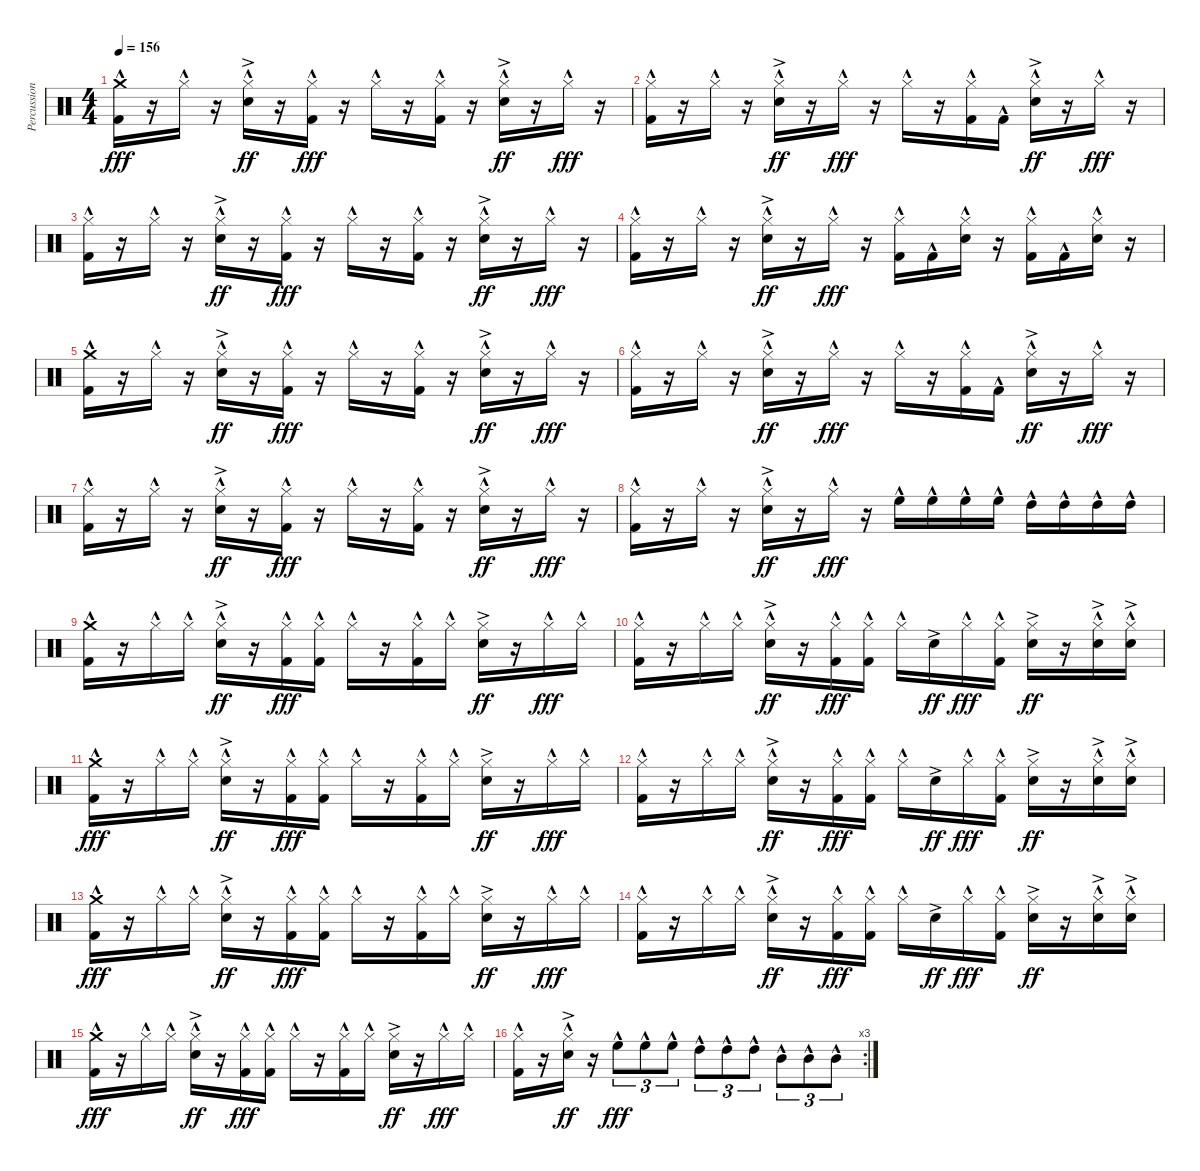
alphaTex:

\track ("Percussion" "Percussion") {instrument percussion bank 255}
\staff {score}
\articulation defaults
\ts (4 4)
\tempo 156
\clef neutral
\ks c
("Crash medium (hit)"{hac} "Kick (hit) 2"{hac}).16{dy fff} r.16 "Hi-Hat (closed)"{hac}.16 r.16 ("Hi-Hat (closed)"{hac} "Snare (hit) 2"{ac}).16{dy ff} r.16 ("Hi-Hat (closed)"{hac} "Kick (hit) 2"{hac}).16{dy fff} r.16 "Hi-Hat (closed)"{hac}.16 r.16 ("Hi-Hat (closed)"{hac} "Kick (hit) 2"{hac}).16 r.16 ("Hi-Hat (closed)"{hac} "Snare (hit) 2"{ac}).16{dy ff} r.16 "Hi-Hat (closed)"{hac}.16{dy fff} r.16 |
("Hi-Hat (closed)"{hac} "Kick (hit) 2"{hac}).16 r.16 "Hi-Hat (closed)"{hac}.16 r.16 ("Hi-Hat (closed)"{hac} "Snare (hit) 2"{ac}).16{dy ff} r.16 "Hi-Hat (closed)"{hac}.16{dy fff} r.16 "Hi-Hat (closed)"{hac}.16 r.16 ("Hi-Hat (closed)"{hac} "Kick (hit) 2"{hac}).16 "Kick (hit) 2"{hac}.16 ("Hi-Hat (closed)"{hac} "Snare (hit) 2"{ac}).16{dy ff} r.16 "Hi-Hat (closed)"{hac}.16{dy fff} r.16 |
("Hi-Hat (closed)"{hac} "Kick (hit) 2"{hac}).16 r.16 "Hi-Hat (closed)"{hac}.16 r.16 ("Hi-Hat (closed)"{hac} "Snare (hit) 2"{ac}).16{dy ff} r.16 ("Hi-Hat (closed)"{hac} "Kick (hit) 2"{hac}).16{dy fff} r.16 "Hi-Hat (closed)"{hac}.16 r.16 ("Hi-Hat (closed)"{hac} "Kick (hit) 2"{hac}).16 r.16 ("Hi-Hat (closed)"{hac} "Snare (hit) 2"{ac}).16{dy ff} r.16 "Hi-Hat (closed)"{hac}.16{dy fff} r.16 |
("Hi-Hat (closed)"{hac} "Kick (hit) 2"{hac}).16 r.16 "Hi-Hat (closed)"{hac}.16 r.16 ("Hi-Hat (closed)"{hac} "Snare (hit) 2"{ac}).16{dy ff} r.16 "Hi-Hat (closed)"{hac}.16{dy fff} r.16 ("Hi-Hat (closed)"{hac} "Kick (hit) 2"{hac}).16 "Kick (hit) 2"{hac}.16 ("Hi-Hat (closed)"{hac} "Snare (hit) 2").16 r.16 ("Hi-Hat (closed)"{hac} "Kick (hit) 2"{hac}).16 "Kick (hit) 2"{hac}.16 ("Hi-Hat (closed)"{hac} "Snare (hit) 2").16 r.16 |
("Crash medium (hit)"{hac} "Kick (hit) 2"{hac}).16 r.16 "Hi-Hat (closed)"{hac}.16 r.16 ("Hi-Hat (closed)"{hac} "Snare (hit) 2"{ac}).16{dy ff} r.16 ("Hi-Hat (closed)"{hac} "Kick (hit) 2"{hac}).16{dy fff} r.16 "Hi-Hat (closed)"{hac}.16 r.16 ("Hi-Hat (closed)"{hac} "Kick (hit) 2"{hac}).16 r.16 ("Hi-Hat (closed)"{hac} "Snare (hit) 2"{ac}).16{dy ff} r.16 "Hi-Hat (closed)"{hac}.16{dy fff} r.16 |
("Hi-Hat (closed)"{hac} "Kick (hit) 2"{hac}).16 r.16 "Hi-Hat (closed)"{hac}.16 r.16 ("Hi-Hat (closed)"{hac} "Snare (hit) 2"{ac}).16{dy ff} r.16 "Hi-Hat (closed)"{hac}.16{dy fff} r.16 "Hi-Hat (closed)"{hac}.16 r.16 ("Hi-Hat (closed)"{hac} "Kick (hit) 2"{hac}).16 "Kick (hit) 2"{hac}.16 ("Hi-Hat (closed)"{hac} "Snare (hit) 2"{ac}).16{dy ff} r.16 "Hi-Hat (closed)"{hac}.16{dy fff} r.16 |
("Hi-Hat (closed)"{hac} "Kick (hit) 2"{hac}).16 r.16 "Hi-Hat (closed)"{hac}.16 r.16 ("Hi-Hat (closed)"{hac} "Snare (hit) 2"{ac}).16{dy ff} r.16 ("Hi-Hat (closed)"{hac} "Kick (hit) 2"{hac}).16{dy fff} r.16 "Hi-Hat (closed)"{hac}.16 r.16 ("Hi-Hat (closed)"{hac} "Kick (hit) 2"{hac}).16 r.16 ("Hi-Hat (closed)"{hac} "Snare (hit) 2"{ac}).16{dy ff} r.16 "Hi-Hat (closed)"{hac}.16{dy fff} r.16 |
("Hi-Hat (closed)"{hac} "Kick (hit) 2"{hac}).16 r.16 "Hi-Hat (closed)"{hac}.16 r.16 ("Hi-Hat (closed)"{hac} "Snare (hit) 2"{ac}).16{dy ff} r.16 "Hi-Hat (closed)"{hac}.16{dy fff} r.16 "High Floor Tom (hit)"{hac}.16 "High Floor Tom (hit)"{hac}.16 "High Floor Tom (hit)"{hac}.16 "High Floor Tom (hit)"{hac}.16 "High Tom (hit)"{hac}.16 "High Tom (hit)"{hac}.16 "High Tom (hit)"{hac}.16 "High Tom (hit)"{hac}.16 |
("Crash medium (hit)"{hac} "Kick (hit) 2"{hac}).16 r.16 "Hi-Hat (closed)"{hac}.16 "Hi-Hat (closed)"{hac}.16 ("Hi-Hat (closed)"{hac} "Snare (hit) 2"{ac}).16{dy ff} r.16 ("Hi-Hat (closed)"{hac} "Kick (hit) 2"{hac}).16{dy fff} ("Hi-Hat (closed)"{hac} "Kick (hit) 2"{hac}).16 "Hi-Hat (closed)"{hac}.16 r.16 ("Hi-Hat (closed)"{hac} "Kick (hit) 2"{hac}).16 "Hi-Hat (closed)"{hac}.16 ("Hi-Hat (closed)"{ac} "Snare (hit) 2"{ac}).16{dy ff} r.16 "Hi-Hat (closed)"{hac}.16{dy fff} "Hi-Hat (closed)"{hac}.16 |
("Hi-Hat (closed)"{hac} "Kick (hit) 2"{hac}).16 r.16 "Hi-Hat (closed)"{hac}.16 "Hi-Hat (closed)"{hac}.16 ("Hi-Hat (closed)"{hac} "Snare (hit) 2"{ac}).16{dy ff} r.16 ("Hi-Hat (closed)"{hac} "Kick (hit) 2"{hac}).16{dy fff} ("Hi-Hat (closed)"{hac} "Kick (hit) 2"{hac}).16 "Hi-Hat (closed)"{hac}.16 "Snare (hit) 2"{ac}.16{dy ff} "Hi-Hat (closed)"{hac}.16{dy fff} ("Hi-Hat (closed)"{hac} "Kick (hit) 2").16 ("Hi-Hat (closed)"{ac} "Snare (hit) 2"{ac}).16{dy ff} r.16 ("Hi-Hat (closed)"{hac} "Snare (hit) 2"{ac}).16 ("Hi-Hat (closed)"{hac} "Snare (hit) 2"{ac}).16 |
("Crash medium (hit)"{hac} "Kick (hit) 2"{hac}).16{dy fff} r.16 "Hi-Hat (closed)"{hac}.16 "Hi-Hat (closed)"{hac}.16 ("Hi-Hat (closed)"{hac} "Snare (hit) 2"{ac}).16{dy ff} r.16 ("Hi-Hat (closed)"{hac} "Kick (hit) 2"{hac}).16{dy fff} ("Hi-Hat (closed)"{hac} "Kick (hit) 2"{hac}).16 "Hi-Hat (closed)"{hac}.16 r.16 ("Hi-Hat (closed)"{hac} "Kick (hit) 2"{hac}).16 "Hi-Hat (closed)"{hac}.16 ("Hi-Hat (closed)"{ac} "Snare (hit) 2"{ac}).16{dy ff} r.16 "Hi-Hat (closed)"{hac}.16{dy fff} "Hi-Hat (closed)"{hac}.16 |
("Hi-Hat (closed)"{hac} "Kick (hit) 2"{hac}).16 r.16 "Hi-Hat (closed)"{hac}.16 "Hi-Hat (closed)"{hac}.16 ("Hi-Hat (closed)"{hac} "Snare (hit) 2"{ac}).16{dy ff} r.16 ("Hi-Hat (closed)"{hac} "Kick (hit) 2"{hac}).16{dy fff} ("Hi-Hat (closed)"{hac} "Kick (hit) 2"{hac}).16 "Hi-Hat (closed)"{hac}.16 "Snare (hit) 2"{ac}.16{dy ff} "Hi-Hat (closed)"{hac}.16{dy fff} ("Hi-Hat (closed)"{hac} "Kick (hit) 2").16 ("Hi-Hat (closed)"{ac} "Snare (hit) 2"{ac}).16{dy ff} r.16 ("Hi-Hat (closed)"{hac} "Snare (hit) 2"{ac}).16 ("Hi-Hat (closed)"{hac} "Snare (hit) 2"{ac}).16 |
("Crash medium (hit)"{hac} "Kick (hit) 2"{hac}).16{dy fff} r.16 "Hi-Hat (closed)"{hac}.16 "Hi-Hat (closed)"{hac}.16 ("Hi-Hat (closed)"{hac} "Snare (hit) 2"{ac}).16{dy ff} r.16 ("Hi-Hat (closed)"{hac} "Kick (hit) 2"{hac}).16{dy fff} ("Hi-Hat (closed)"{hac} "Kick (hit) 2"{hac}).16 "Hi-Hat (closed)"{hac}.16 r.16 ("Hi-Hat (closed)"{hac} "Kick (hit) 2"{hac}).16 "Hi-Hat (closed)"{hac}.16 ("Hi-Hat (closed)"{ac} "Snare (hit) 2"{ac}).16{dy ff} r.16 "Hi-Hat (closed)"{hac}.16{dy fff} "Hi-Hat (closed)"{hac}.16 |
("Hi-Hat (closed)"{hac} "Kick (hit) 2"{hac}).16 r.16 "Hi-Hat (closed)"{hac}.16 "Hi-Hat (closed)"{hac}.16 ("Hi-Hat (closed)"{hac} "Snare (hit) 2"{ac}).16{dy ff} r.16 ("Hi-Hat (closed)"{hac} "Kick (hit) 2"{hac}).16{dy fff} ("Hi-Hat (closed)"{hac} "Kick (hit) 2"{hac}).16 "Hi-Hat (closed)"{hac}.16 "Snare (hit) 2"{ac}.16{dy ff} "Hi-Hat (closed)"{hac}.16{dy fff} ("Hi-Hat (closed)"{hac} "Kick (hit) 2").16 ("Hi-Hat (closed)"{ac} "Snare (hit) 2"{ac}).16{dy ff} r.16 ("Hi-Hat (closed)"{hac} "Snare (hit) 2"{ac}).16 ("Hi-Hat (closed)"{hac} "Snare (hit) 2"{ac}).16 |
("Crash medium (hit)"{hac} "Kick (hit) 2"{hac}).16{dy fff} r.16 "Hi-Hat (closed)"{hac}.16 "Hi-Hat (closed)"{hac}.16 ("Hi-Hat (closed)"{hac} "Snare (hit) 2"{ac}).16{dy ff} r.16 ("Hi-Hat (closed)"{hac} "Kick (hit) 2"{hac}).16{dy fff} ("Hi-Hat (closed)"{hac} "Kick (hit) 2"{hac}).16 "Hi-Hat (closed)"{hac}.16 r.16 ("Hi-Hat (closed)"{hac} "Kick (hit) 2"{hac}).16 "Hi-Hat (closed)"{hac}.16 ("Hi-Hat (closed)"{ac} "Snare (hit) 2"{ac}).16{dy ff} r.16 "Hi-Hat (closed)"{hac}.16{dy fff} "Hi-Hat (closed)"{hac}.16 |
\rc 3
("Hi-Hat (closed)"{hac} "Kick (hit) 2"{hac}).16 r.16 ("Hi-Hat (closed)"{hac} "Snare (hit) 2"{ac}).16{dy ff} r.16 "High Floor Tom (hit)"{hac}.8{tu (3 2) dy fff} "High Floor Tom (hit)"{hac}.8{tu (3 2)} "High Floor Tom (hit)"{hac}.8{tu (3 2)} "High Tom (hit)"{hac}.8{tu (3 2)} "High Tom (hit)"{hac}.8{tu (3 2)} "High Tom (hit)"{hac}.8{tu (3 2)} "Mid Tom (hit)"{hac}.8{tu (3 2)} "Mid Tom (hit)"{hac}.8{tu (3 2)} "Mid Tom (hit)"{hac}.8{tu (3 2)}
